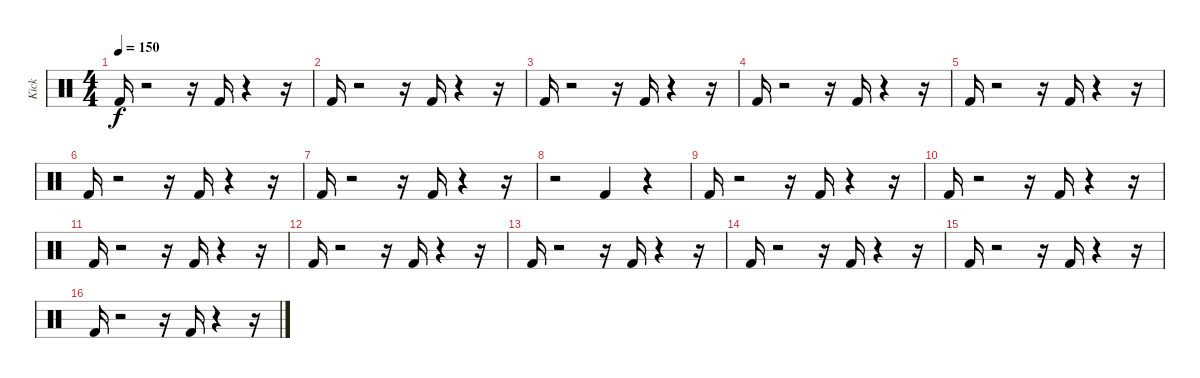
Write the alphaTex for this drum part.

\track ("Kick" "Kick") {instrument percussion}
\staff {score}
\articulation defaults
\ts (4 4)
\tempo 150
\clef neutral
\ks c "Kick (hit) 2".16{dy f}
r.2 r.16 "Kick (hit) 2".16 r.4 r.16 |
"Kick (hit) 2".16 r.2 r.16 "Kick (hit) 2".16 r.4 r.16 |
"Kick (hit) 2".16 r.2 r.16 "Kick (hit) 2".16 r.4 r.16 |
"Kick (hit) 2".16 r.2 r.16 "Kick (hit) 2".16 r.4 r.16 |
"Kick (hit) 2".16 r.2 r.16 "Kick (hit) 2".16 r.4 r.16 |
"Kick (hit) 2".16 r.2 r.16 "Kick (hit) 2".16 r.4 r.16 |
"Kick (hit) 2".16 r.2 r.16 "Kick (hit) 2".16 r.4 r.16 |
r.2 "Kick (hit) 2".4 r.4 |
"Kick (hit) 2".16 r.2 r.16 "Kick (hit) 2".16 r.4 r.16 |
"Kick (hit) 2".16 r.2 r.16 "Kick (hit) 2".16 r.4 r.16 |
"Kick (hit) 2".16 r.2 r.16 "Kick (hit) 2".16 r.4 r.16 |
"Kick (hit) 2".16 r.2 r.16 "Kick (hit) 2".16 r.4 r.16 |
"Kick (hit) 2".16 r.2 r.16 "Kick (hit) 2".16 r.4 r.16 |
"Kick (hit) 2".16 r.2 r.16 "Kick (hit) 2".16 r.4 r.16 |
"Kick (hit) 2".16 r.2 r.16 "Kick (hit) 2".16 r.4 r.16 |
"Kick (hit) 2".16 r.2 r.16 "Kick (hit) 2".16 r.4 r.16
